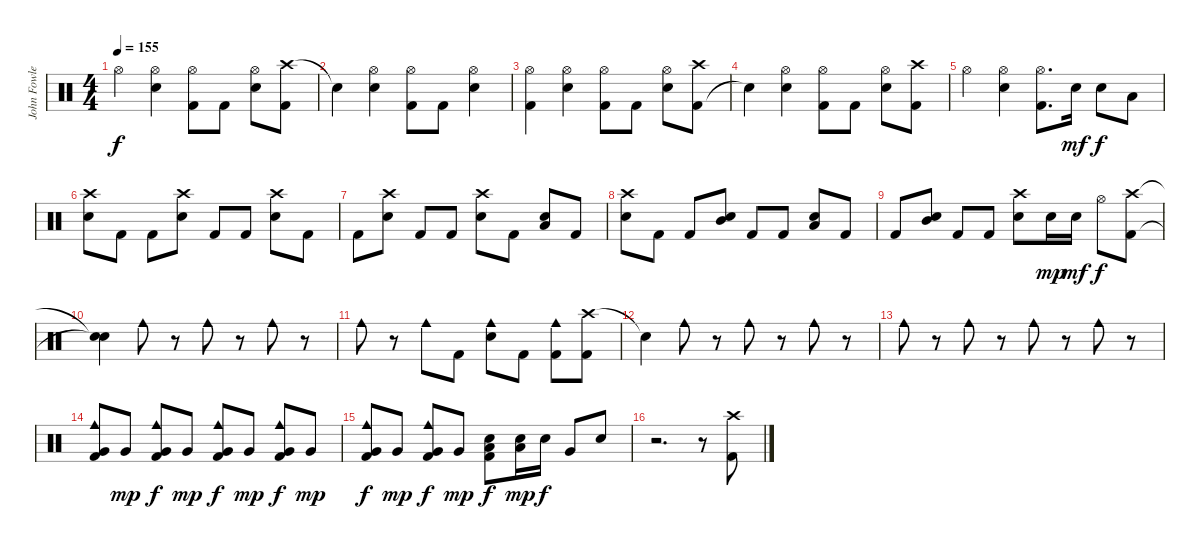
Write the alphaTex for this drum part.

\track ("John Fowler - Drums" "John Fowle") {instrument percussion}
\staff {score}
\articulation defaults
\ts (4 4)
\tempo 155
\clef neutral
\ks c "Hi-Hat (open)".4{dy f}
("Hi-Hat (open)" "Electric Snare (hit)").4 ("Hi-Hat (open)" "Kick (hit) 2").8 "Kick (hit) 2".8 ("Hi-Hat (open)" "Electric Snare (hit)").8 ("Crash high (hit)" "Kick (hit) 2").8 |
"Snare (hit)"{t}.4 ("Electric Snare (hit)" "Hi-Hat (open)").4 ("Hi-Hat (open)" "Kick (hit) 2").8 "Kick (hit) 2".8 ("Electric Snare (hit)" "Hi-Hat (open)").4 |
("Kick (hit) 2" "Hi-Hat (open)").4 ("Electric Snare (hit)" "Hi-Hat (open)").4 ("Hi-Hat (open)" "Kick (hit) 2").8 "Kick (hit) 2".8 ("Electric Snare (hit)" "Hi-Hat (open)").8 ("Kick (hit) 2" "Crash high (hit)").8 |
"Snare (hit)"{t}.4 ("Electric Snare (hit)" "Hi-Hat (open)").4 ("Kick (hit) 2" "Hi-Hat (open)").8 "Kick (hit) 2".8 ("Electric Snare (hit)" "Hi-Hat (open)").8 ("Crash high (hit)" "Kick (hit) 2").8 |
"Hi-Hat (open)".4 ("Hi-Hat (open)" "Electric Snare (hit)").4 ("Hi-Hat (open)" "Kick (hit) 2").8{d} "Electric Snare (hit)".16{dy mf} "Electric Snare (hit)".8{dy f} "Low Tom (hit)".8 |
("Electric Snare (hit)" "Crash high (hit)").8 "Kick (hit) 2".8 "Kick (hit) 2".8 ("Crash high (hit)" "Electric Snare (hit)").8 "Kick (hit) 2".8 "Kick (hit) 2".8 ("Crash high (hit)" "Electric Snare (hit)").8 "Kick (hit) 2".8 |
"Kick (hit) 2".8 ("Crash high (hit)" "Electric Snare (hit)").8 "Kick (hit) 2".8 "Kick (hit) 2".8 ("Crash high (hit)" "Electric Snare (hit)").8 "Kick (hit) 2".8 ("Low Tom (hit)" "Electric Snare (hit)").8 "Kick (hit) 2".8 |
("Crash high (hit)" "Electric Snare (hit)").8 "Kick (hit) 2".8 "Kick (hit) 2".8 ("Mid Tom (hit)" "Electric Snare (hit)").8 "Kick (hit) 2".8 "Kick (hit) 2".8 ("Low Tom (hit)" "Electric Snare (hit)").8 "Kick (hit) 2".8 |
"Kick (hit) 2".8 ("Mid Tom (hit)" "Electric Snare (hit)").8 "Kick (hit) 2".8 "Kick (hit) 2".8 ("Crash high (hit)" "Electric Snare (hit)").8 "Electric Snare (hit)".16{dy mp} "Electric Snare (hit)".16{dy mf} "Hi-Hat (open)".8{dy f} ("Crash high (hit)" "Kick (hit) 2").8 |
("Snare (hit)"{t} "Snare (hit)"{t}).4 "Cowbell medium (hit)".8 r.8 "Cowbell medium (hit)".8 r.8 "Cowbell medium (hit)".8 r.8 |
"Cowbell medium (hit)".8 r.8 "Cowbell medium (hit)".8 "Kick (hit) 2".8 ("Electric Snare (hit)" "Cowbell medium (hit)").8 "Kick (hit) 2".8 ("Cowbell medium (hit)" "Kick (hit) 2").8 ("Crash high (hit)" "Kick (hit) 2").8 |
"Snare (hit)"{t}.4 "Cowbell medium (hit)".8 r.8 "Cowbell medium (hit)".8 r.8 "Cowbell medium (hit)".8 r.8 |
"Cowbell medium (hit)".8 r.8 "Cowbell medium (hit)".8 r.8 "Cowbell medium (hit)".8 r.8 "Cowbell medium (hit)".8 r.8 |
("Very Low Tom (hit)" "Kick (hit) 2" "Cowbell medium (hit)").8{volume 16} "Very Low Tom (hit)".8{dy mp} ("Very Low Tom (hit)" "Kick (hit) 2" "Cowbell medium (hit)").8{dy f} "Very Low Tom (hit)".8{dy mp} ("Very Low Tom (hit)" "Kick (hit) 2" "Cowbell medium (hit)").8{dy f} "Very Low Tom (hit)".8{dy mp} ("Very Low Tom (hit)" "Kick (hit) 2" "Cowbell medium (hit)").8{dy f} "Very Low Tom (hit)".8{dy mp} |
("Very Low Tom (hit)" "Kick (hit) 2" "Cowbell medium (hit)").8{dy f} "Very Low Tom (hit)".8{dy mp} ("Very Low Tom (hit)" "Kick (hit) 2" "Cowbell medium (hit)").8{dy f} "Very Low Tom (hit)".8{dy mp} ("Electric Snare (hit)" "Kick (hit) 2" "Low Tom (hit)").8{dy f} ("Electric Snare (hit)" "Low Tom (hit)").16{dy mp} "Electric Snare (hit)".16{dy f} "Very Low Tom (hit)".8 "Electric Snare (hit)".8 |
r.2{d} r.8 ("Crash high (hit)" "Kick (hit) 2").8
